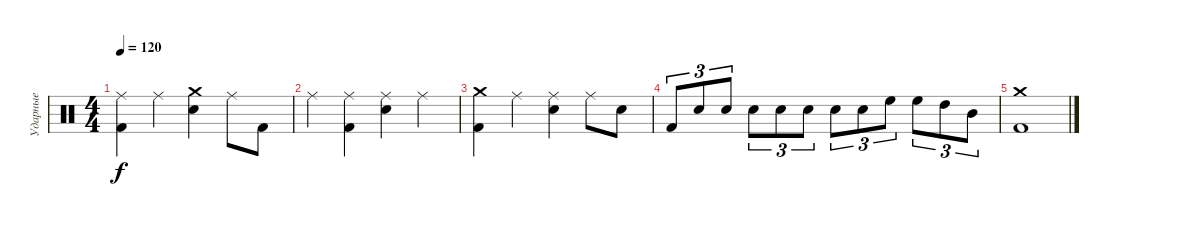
\track ("Ударные" "Ударные") {instrument percussion}
\staff {score}
\articulation defaults
\ts (4 4)
\tempo 120
\clef neutral
\ks c
("Ride (middle)" "Kick (hit) 2").4{dy f} "Ride (middle)".4 ("Crash medium (hit)" "Electric Snare (hit)").4 "Ride (middle)".8 "Kick (hit) 2".8 |
"Ride (middle)".4 ("Ride (middle)" "Kick (hit) 2").4 ("Ride (middle)" "Electric Snare (hit)").4 "Ride (middle)".4 |
("Crash medium (hit)" "Kick (hit) 2").4 "Ride (middle)".4 ("Ride (middle)" "Electric Snare (hit)").4 "Ride (middle)".8 "Electric Snare (hit)".8 |
"Kick (hit) 2".8{tu (3 2)} "Electric Snare (hit)".8{tu (3 2)} "Electric Snare (hit)".8{tu (3 2)} "Electric Snare (hit)".8{tu (3 2)} "Electric Snare (hit)".8{tu (3 2)} "Electric Snare (hit)".8{tu (3 2)} "Electric Snare (hit)".8{tu (3 2)} "Electric Snare (hit)".8{tu (3 2)} "High Floor Tom (hit)".8{tu (3 2)} "High Floor Tom (hit)".8{tu (3 2)} "High Tom (hit)".8{tu (3 2)} "Mid Tom (hit)".8{tu (3 2)} |
("Crash medium (hit)" "Kick (hit) 2").1
